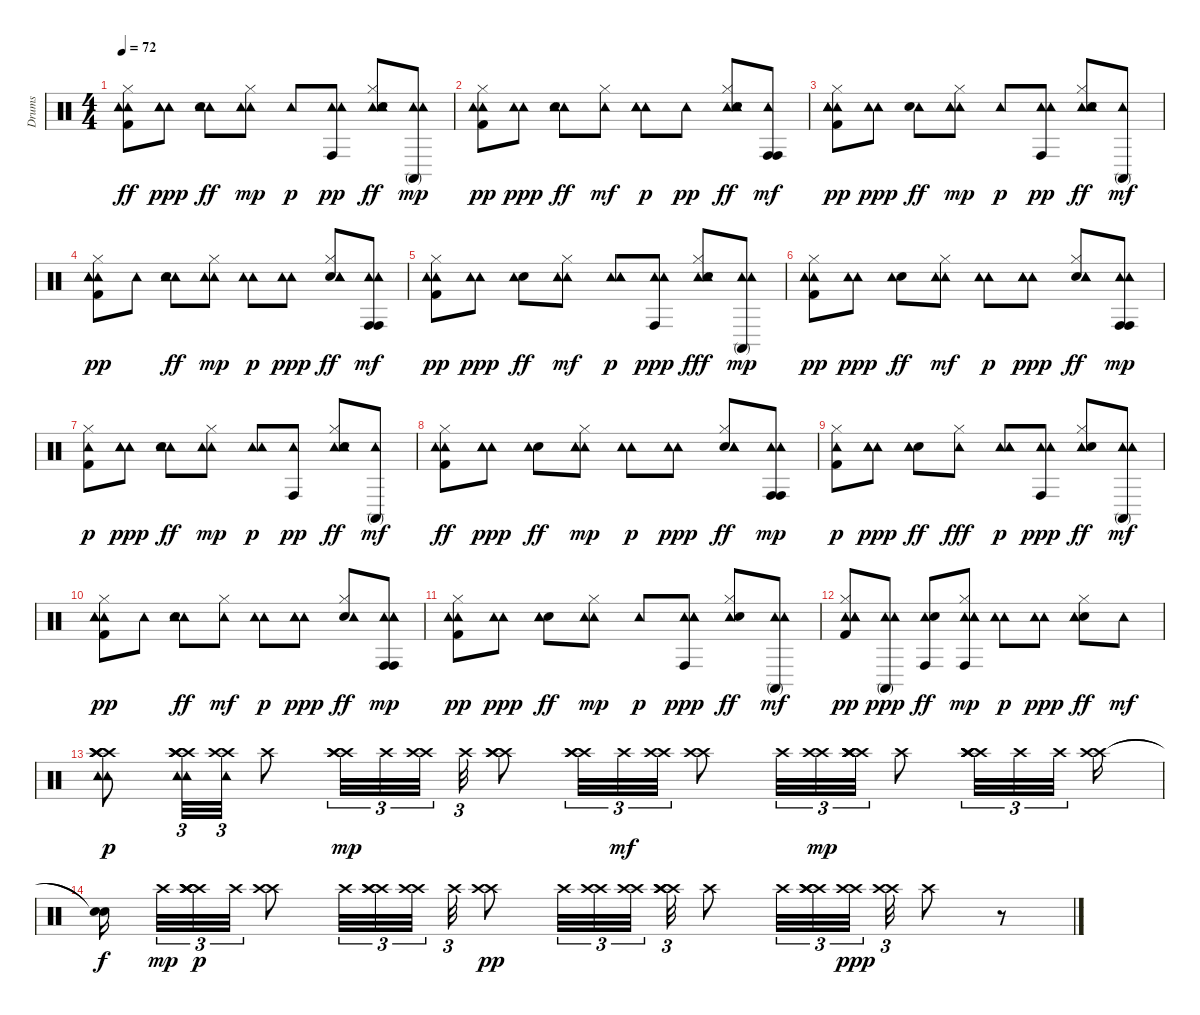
\track ("Drums" "Drums") {instrument percussion}
\staff {score}
\articulation defaults
\ts (4 4)
\tempo 72
\clef neutral
\ks c
("Tambourine (hit)" "Kick (hit) 2" "Tambourine (hit)" "Hi-Hat (closed)").8{dy ff} ("Tambourine (hit)" "Tambourine (hit)" "Tambourine (hit)").8{dy ppp} ("Tambourine (hit)" "Snare (hit) 2" "Tambourine (hit)").8{dy ff} ("Tambourine (hit)" "Hi-Hat (closed)" "Tambourine (hit)").8{dy mp} "Tambourine (hit)".8{dy p} ("Tambourine (hit)" "Conga high (hit)" "Tambourine (hit)").8{dy pp} ("Tambourine (hit)" "Snare (hit) 2" "Tambourine (hit)" "Hi-Hat (closed)" "Tambourine (hit)").8{dy ff} ("Tambourine (hit)" "Conga high (mute)" "Tambourine (hit)").8{dy mp} |
("Hi-Hat (closed)" "Tambourine (hit)" "Kick (hit) 2" "Tambourine (hit)").8{dy pp} ("Tambourine (hit)" "Tambourine (hit)").8{dy ppp} ("Tambourine (hit)" "Snare (hit) 2" "Tambourine (hit)").8{dy ff} ("Hi-Hat (closed)" "Tambourine (hit)").8{dy mf} ("Tambourine (hit)" "Tambourine (hit)" "Tambourine (hit)").8{dy p} "Tambourine (hit)".8{dy pp} ("Tambourine (hit)" "Hi-Hat (closed)" "Tambourine (hit)" "Snare (hit) 2" "Tambourine (hit)").8{dy ff} ("Tambourine (hit)" "Conga high (hit)" "Conga high (hit)").8{dy mf} |
("Tambourine (hit)" "Kick (hit) 2" "Tambourine (hit)" "Hi-Hat (closed)" "Tambourine (hit)").8{dy pp} ("Tambourine (hit)" "Tambourine (hit)").8{dy ppp} ("Tambourine (hit)" "Snare (hit) 2").8{dy ff} ("Tambourine (hit)" "Hi-Hat (closed)" "Tambourine (hit)" "Tambourine (hit)").8{dy mp} "Tambourine (hit)".8{dy p} ("Tambourine (hit)" "Conga high (hit)" "Tambourine (hit)").8{dy pp} ("Tambourine (hit)" "Snare (hit) 2" "Hi-Hat (closed)" "Tambourine (hit)" "Tambourine (hit)").8{dy ff} ("Conga high (mute)" "Tambourine (hit)").8{dy mf} |
("Tambourine (hit)" "Kick (hit) 2" "Hi-Hat (closed)" "Tambourine (hit)" "Tambourine (hit)").8{dy pp} "Tambourine (hit)".8 ("Tambourine (hit)" "Snare (hit) 2" "Tambourine (hit)" "Tambourine (hit)").8{dy ff} ("Tambourine (hit)" "Hi-Hat (closed)" "Tambourine (hit)").8{dy mp} ("Tambourine (hit)" "Tambourine (hit)").8{dy p} ("Tambourine (hit)" "Tambourine (hit)").8{dy ppp} ("Hi-Hat (closed)" "Snare (hit) 2" "Tambourine (hit)" "Tambourine (hit)").8{dy ff} ("Tambourine (hit)" "Conga high (hit)" "Tambourine (hit)" "Conga high (hit)").8{dy mf} |
("Hi-Hat (closed)" "Tambourine (hit)" "Kick (hit) 2" "Tambourine (hit)").8{dy pp} ("Tambourine (hit)" "Tambourine (hit)").8{dy ppp} ("Snare (hit) 2" "Tambourine (hit)").8{dy ff} ("Tambourine (hit)" "Tambourine (hit)" "Hi-Hat (closed)").8{dy mf} ("Tambourine (hit)" "Tambourine (hit)" "Tambourine (hit)").8{dy p} ("Tambourine (hit)" "Conga high (hit)" "Tambourine (hit)").8{dy ppp} ("Tambourine (hit)" "Hi-Hat (closed)" "Snare (hit) 2" "Tambourine (hit)").8{dy fff} ("Conga high (mute)" "Tambourine (hit)" "Tambourine (hit)").8{dy mp} |
("Hi-Hat (closed)" "Tambourine (hit)" "Kick (hit) 2" "Tambourine (hit)").8{dy pp} ("Tambourine (hit)" "Tambourine (hit)").8{dy ppp} ("Snare (hit) 2" "Tambourine (hit)").8{dy ff} ("Tambourine (hit)" "Hi-Hat (closed)" "Tambourine (hit)").8{dy mf} ("Tambourine (hit)" "Tambourine (hit)").8{dy p} ("Tambourine (hit)" "Tambourine (hit)" "Tambourine (hit)").8{dy ppp} ("Hi-Hat (closed)" "Snare (hit) 2" "Tambourine (hit)" "Tambourine (hit)").8{dy ff} ("Tambourine (hit)" "Conga high (hit)" "Tambourine (hit)" "Conga high (hit)").8{dy mp} |
("Kick (hit) 2" "Hi-Hat (closed)" "Tambourine (hit)").8{dy p} ("Tambourine (hit)" "Tambourine (hit)" "Tambourine (hit)").8{dy ppp} ("Tambourine (hit)" "Snare (hit) 2" "Tambourine (hit)").8{dy ff} ("Hi-Hat (closed)" "Tambourine (hit)" "Tambourine (hit)").8{dy mp} ("Tambourine (hit)" "Tambourine (hit)").8{dy p} ("Conga high (hit)" "Tambourine (hit)").8{dy pp} ("Tambourine (hit)" "Snare (hit) 2" "Hi-Hat (closed)" "Tambourine (hit)" "Tambourine (hit)").8{dy ff} ("Conga high (mute)" "Tambourine (hit)").8{dy mf} |
("Tambourine (hit)" "Kick (hit) 2" "Tambourine (hit)" "Hi-Hat (closed)").8{dy ff} ("Tambourine (hit)" "Tambourine (hit)" "Tambourine (hit)").8{dy ppp} ("Snare (hit) 2" "Tambourine (hit)").8{dy ff} ("Tambourine (hit)" "Tambourine (hit)" "Hi-Hat (closed)" "Tambourine (hit)").8{dy mp} ("Tambourine (hit)" "Tambourine (hit)").8{dy p} ("Tambourine (hit)" "Tambourine (hit)").8{dy ppp} ("Snare (hit) 2" "Hi-Hat (closed)" "Tambourine (hit)" "Tambourine (hit)").8{dy ff} ("Conga high (hit)" "Tambourine (hit)" "Tambourine (hit)" "Conga high (hit)").8{dy mp} |
("Kick (hit) 2" "Hi-Hat (closed)" "Tambourine (hit)").8{dy p} ("Tambourine (hit)" "Tambourine (hit)" "Tambourine (hit)").8{dy ppp} ("Snare (hit) 2" "Tambourine (hit)" "Tambourine (hit)").8{dy ff} ("Tambourine (hit)" "Hi-Hat (closed)").8{dy fff} ("Tambourine (hit)" "Tambourine (hit)" "Tambourine (hit)").8{dy p} ("Tambourine (hit)" "Conga high (hit)" "Tambourine (hit)").8{dy ppp} ("Tambourine (hit)" "Hi-Hat (closed)" "Snare (hit) 2").8{dy ff} ("Tambourine (hit)" "Tambourine (hit)" "Conga high (mute)").8{dy mf} |
("Tambourine (hit)" "Kick (hit) 2" "Tambourine (hit)" "Hi-Hat (closed)" "Tambourine (hit)").8{dy pp} "Tambourine (hit)".8 ("Tambourine (hit)" "Tambourine (hit)" "Snare (hit) 2" "Tambourine (hit)").8{dy ff} ("Hi-Hat (closed)" "Tambourine (hit)").8{dy mf} ("Tambourine (hit)" "Tambourine (hit)").8{dy p} ("Tambourine (hit)" "Tambourine (hit)" "Tambourine (hit)").8{dy ppp} ("Snare (hit) 2" "Hi-Hat (closed)" "Tambourine (hit)").8{dy ff} ("Tambourine (hit)" "Conga high (hit)" "Tambourine (hit)" "Tambourine (hit)" "Conga high (hit)").8{dy mp} |
("Kick (hit) 2" "Hi-Hat (closed)" "Tambourine (hit)" "Tambourine (hit)").8{dy pp} ("Tambourine (hit)" "Tambourine (hit)").8{dy ppp} ("Snare (hit) 2" "Tambourine (hit)" "Tambourine (hit)").8{dy ff} ("Hi-Hat (closed)" "Tambourine (hit)" "Tambourine (hit)").8{dy mp} "Tambourine (hit)".8{dy p} ("Tambourine (hit)" "Conga high (hit)" "Tambourine (hit)" "Tambourine (hit)").8{dy ppp} ("Tambourine (hit)" "Hi-Hat (closed)" "Snare (hit) 2").8{dy ff} ("Tambourine (hit)" "Tambourine (hit)" "Conga high (mute)").8{dy mf} |
("Tambourine (hit)" "Kick (hit) 2" "Tambourine (hit)" "Hi-Hat (closed)" "Tambourine (hit)").8{dy pp} ("Tambourine (hit)" "Conga high (mute)" "Tambourine (hit)").8{dy ppp} ("Tambourine (hit)" "Conga high (hit)" "Snare (hit) 2").8{dy ff} ("Tambourine (hit)" "Conga high (hit)" "Tambourine (hit)" "Hi-Hat (closed)" "Tambourine (hit)").8{dy mp} ("Tambourine (hit)" "Tambourine (hit)").8{dy p} ("Tambourine (hit)" "Tambourine (hit)").8{dy ppp} ("Snare (hit) 2" "Hi-Hat (closed)" "Tambourine (hit)" "Tambourine (hit)").8{dy ff} "Tambourine (hit)".8{dy mf} |
("Tambourine (hit)" "Tambourine (hit)" "Crash high (hit)" "Crash high (hit)" "Crash high (hit)" "Crash high (hit)").8{dy p} ("Tambourine (hit)" "Crash high (hit)" "Crash high (hit)" "Crash high (hit)" "Tambourine (hit)" "Crash high (hit)").32{tu (3 2)} ("Crash high (hit)" "Tambourine (hit)" "Crash high (hit)").32{tu (3 2)} "Crash high (hit)".8 ("Crash high (hit)" "Crash high (hit)" "Crash high (hit)").32{tu (3 2) dy mp} "Crash high (hit)".32{tu (3 2)} ("Crash high (hit)" "Crash high (hit)").32{tu (3 2) beam splitsecondary} "Crash high (hit)".32{tu (3 2)} ("Crash high (hit)" "Crash high (hit)" "Crash high (hit)").8 ("Crash high (hit)" "Crash high (hit)" "Crash high (hit)").32{tu (3 2)} "Crash high (hit)".32{tu (3 2) dy mf} ("Crash high (hit)" "Crash high (hit)").32{tu (3 2)} ("Crash high (hit)" "Crash high (hit)").8 "Crash high (hit)".32{tu (3 2)} ("Crash high (hit)" "Crash high (hit)").32{tu (3 2) dy mp} ("Crash high (hit)" "Crash high (hit)" "Crash high (hit)" "Crash high (hit)" "Crash high (hit)" "Crash high (hit)").32{tu (3 2)} "Crash high (hit)".8 ("Crash high (hit)" "Crash high (hit)" "Crash high (hit)" "Crash high (hit)" "Crash high (hit)").32{tu (3 2)} "Crash high (hit)".32{tu (3 2)} "Crash high (hit)".32{tu (3 2) beam splitsecondary} ("Crash high (hit)" "Crash high (hit)").16 |
("Snare (hit)"{t} "Snare (hit)"{t}).16{dy f beam splitsecondary} "Crash high (hit)".32{tu (3 2) dy mp} ("Crash high (hit)" "Crash high (hit)" "Crash high (hit)" "Crash high (hit)" "Crash high (hit)").32{tu (3 2) dy p} "Crash high (hit)".32{tu (3 2)} ("Crash high (hit)" "Crash high (hit)").8 "Crash high (hit)".32{tu (3 2)} ("Crash high (hit)" "Crash high (hit)" "Crash high (hit)").32{tu (3 2)} ("Crash high (hit)" "Crash high (hit)").32{tu (3 2) beam splitsecondary} "Crash high (hit)".32{tu (3 2)} ("Crash high (hit)" "Crash high (hit)").8{dy pp} "Crash high (hit)".32{tu (3 2)} ("Crash high (hit)" "Crash high (hit)").32{tu (3 2)} ("Crash high (hit)" "Crash high (hit)").32{tu (3 2) beam splitsecondary} ("Crash high (hit)" "Crash high (hit)" "Crash high (hit)" "Crash high (hit)").32{tu (3 2)} "Crash high (hit)".8 "Crash high (hit)".32{tu (3 2)} ("Crash high (hit)" "Crash high (hit)" "Crash high (hit)" "Crash high (hit)").32{tu (3 2)} ("Crash high (hit)" "Crash high (hit)").32{tu (3 2) dy ppp beam splitsecondary} ("Crash high (hit)" "Crash high (hit)").32{tu (3 2)} "Crash high (hit)".8 r.8
